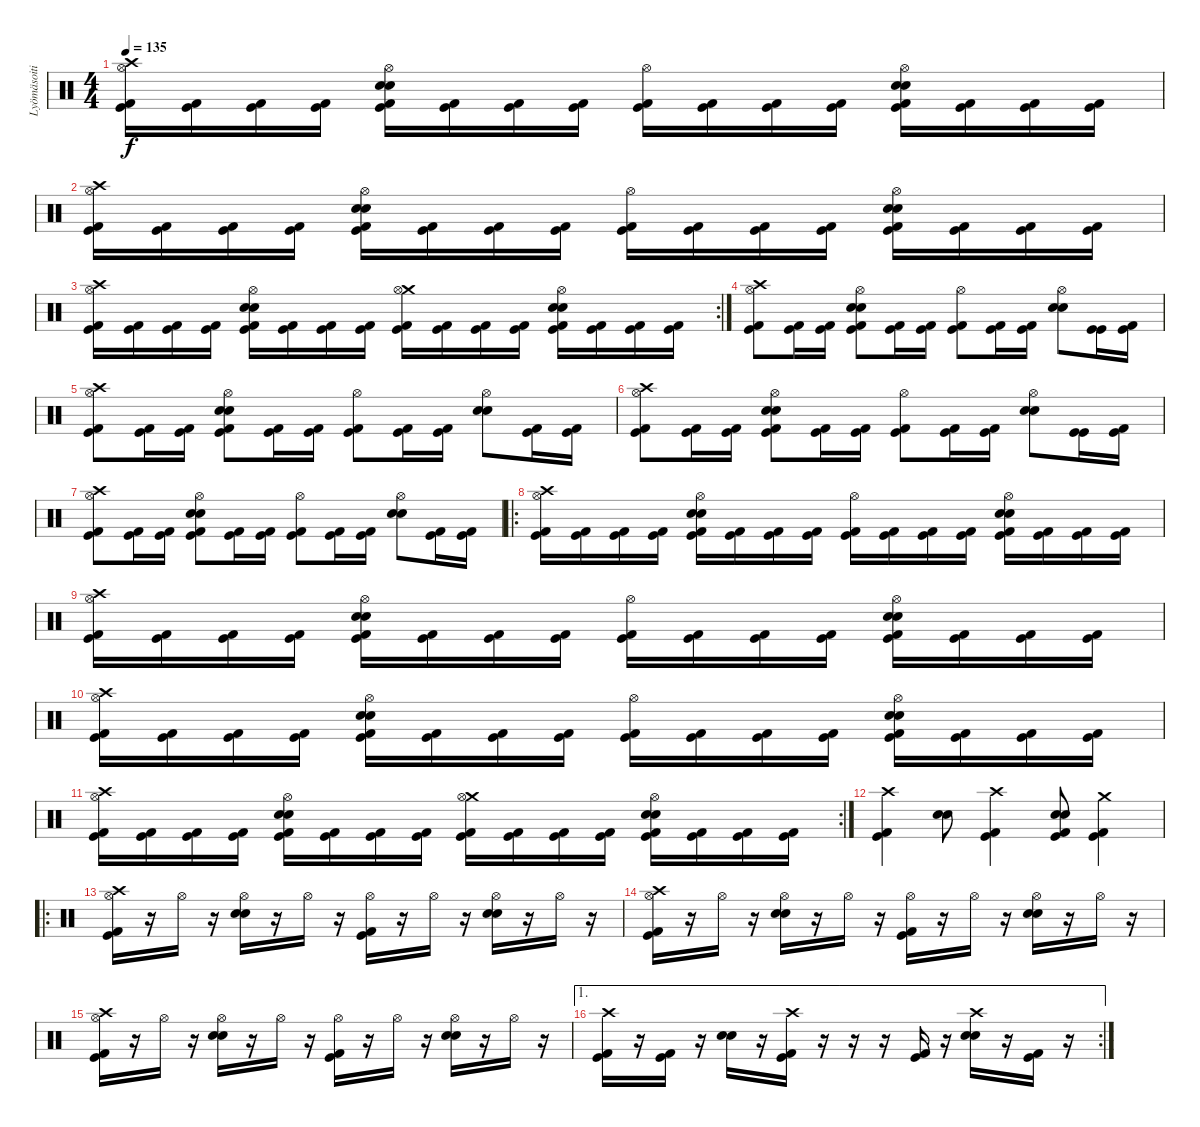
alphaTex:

\track ("Lyömäsoitin" "Lyömäsoiti") {instrument percussion}
\staff {score}
\articulation defaults
\ts (4 4)
\tempo 135
\clef neutral
\ks c
("Crash high (hit)" "Hi-Hat (open)" "Kick (hit) 2" "Kick (hit)").16{dy f} ("Kick (hit) 2" "Kick (hit)").16 ("Kick (hit) 2" "Kick (hit)").16 ("Kick (hit) 2" "Kick (hit)").16 ("Hi-Hat (open)" "Electric Snare (hit)" "Snare (hit) 2" "Kick (hit) 2" "Kick (hit)").16 ("Kick (hit) 2" "Kick (hit)").16 ("Kick (hit) 2" "Kick (hit)").16 ("Kick (hit) 2" "Kick (hit)").16 ("Hi-Hat (open)" "Kick (hit) 2" "Kick (hit)").16 ("Kick (hit) 2" "Kick (hit)").16 ("Kick (hit) 2" "Kick (hit)").16 ("Kick (hit) 2" "Kick (hit)").16 ("Hi-Hat (open)" "Electric Snare (hit)" "Snare (hit) 2" "Kick (hit) 2" "Kick (hit)").16 ("Kick (hit) 2" "Kick (hit)").16 ("Kick (hit) 2" "Kick (hit)").16 ("Kick (hit) 2" "Kick (hit)").16 |
("Crash high (hit)" "Hi-Hat (open)" "Kick (hit) 2" "Kick (hit)").16 ("Kick (hit) 2" "Kick (hit)").16 ("Kick (hit) 2" "Kick (hit)").16 ("Kick (hit) 2" "Kick (hit)").16 ("Hi-Hat (open)" "Electric Snare (hit)" "Snare (hit) 2" "Kick (hit) 2" "Kick (hit)").16 ("Kick (hit) 2" "Kick (hit)").16 ("Kick (hit) 2" "Kick (hit)").16 ("Kick (hit) 2" "Kick (hit)").16 ("Hi-Hat (open)" "Kick (hit) 2" "Kick (hit)").16 ("Kick (hit) 2" "Kick (hit)").16 ("Kick (hit) 2" "Kick (hit)").16 ("Kick (hit) 2" "Kick (hit)").16 ("Hi-Hat (open)" "Electric Snare (hit)" "Snare (hit) 2" "Kick (hit) 2" "Kick (hit)").16 ("Kick (hit) 2" "Kick (hit)").16 ("Kick (hit) 2" "Kick (hit)").16 ("Kick (hit) 2" "Kick (hit)").16 |
\rc 2
("Crash high (hit)" "Hi-Hat (open)" "Kick (hit) 2" "Kick (hit)").16 ("Kick (hit) 2" "Kick (hit)").16 ("Kick (hit) 2" "Kick (hit)").16 ("Kick (hit) 2" "Kick (hit)").16 ("Hi-Hat (open)" "Electric Snare (hit)" "Snare (hit) 2" "Kick (hit) 2" "Kick (hit)").16 ("Kick (hit) 2" "Kick (hit)").16 ("Kick (hit) 2" "Kick (hit)").16 ("Kick (hit) 2" "Kick (hit)").16 ("Crash medium (hit)" "Hi-Hat (open)" "Kick (hit) 2" "Kick (hit)").16 ("Kick (hit) 2" "Kick (hit)").16 ("Kick (hit) 2" "Kick (hit)").16 ("Kick (hit) 2" "Kick (hit)").16 ("Hi-Hat (open)" "Electric Snare (hit)" "Snare (hit) 2" "Kick (hit) 2" "Kick (hit)").16 ("Kick (hit) 2" "Kick (hit)").16 ("Kick (hit) 2" "Kick (hit)").16 ("Kick (hit) 2" "Kick (hit)").16 |
("Crash high (hit)" "Hi-Hat (open)" "Kick (hit) 2" "Kick (hit)").8 ("Kick (hit) 2" "Kick (hit)").16 ("Kick (hit) 2" "Kick (hit)").16 ("Hi-Hat (open)" "Snare (hit) 2" "Electric Snare (hit)" "Kick (hit) 2" "Kick (hit)").8 ("Kick (hit) 2" "Kick (hit)").16 ("Kick (hit) 2" "Kick (hit)").16 ("Hi-Hat (open)" "Kick (hit) 2" "Kick (hit)").8 ("Kick (hit) 2" "Kick (hit)").16 ("Kick (hit) 2" "Kick (hit)").16 ("Hi-Hat (open)" "Snare (hit) 2" "Electric Snare (hit)").8 ("Kick (hit)" "Kick (hit)").16 ("Kick (hit) 2" "Kick (hit)").16 |
("Crash high (hit)" "Hi-Hat (open)" "Kick (hit) 2" "Kick (hit)").8 ("Kick (hit) 2" "Kick (hit)").16 ("Kick (hit) 2" "Kick (hit)").16 ("Hi-Hat (open)" "Snare (hit) 2" "Electric Snare (hit)" "Kick (hit) 2" "Kick (hit)").8 ("Kick (hit) 2" "Kick (hit)").16 ("Kick (hit) 2" "Kick (hit)").16 ("Hi-Hat (open)" "Kick (hit) 2" "Kick (hit)").8 ("Kick (hit) 2" "Kick (hit)").16 ("Kick (hit) 2" "Kick (hit)").16 ("Hi-Hat (open)" "Snare (hit) 2" "Electric Snare (hit)").8 ("Kick (hit)" "Kick (hit) 2").16 ("Kick (hit)" "Kick (hit) 2").16 |
("Crash high (hit)" "Hi-Hat (open)" "Kick (hit) 2" "Kick (hit)").8 ("Kick (hit) 2" "Kick (hit)").16 ("Kick (hit) 2" "Kick (hit)").16 ("Hi-Hat (open)" "Snare (hit) 2" "Electric Snare (hit)" "Kick (hit) 2" "Kick (hit)").8 ("Kick (hit) 2" "Kick (hit)").16 ("Kick (hit) 2" "Kick (hit)").16 ("Hi-Hat (open)" "Kick (hit) 2" "Kick (hit)").8 ("Kick (hit) 2" "Kick (hit)").16 ("Kick (hit) 2" "Kick (hit)").16 ("Hi-Hat (open)" "Snare (hit) 2" "Electric Snare (hit)").8 ("Kick (hit)" "Kick (hit)").16 ("Kick (hit) 2" "Kick (hit)").16 |
("Crash high (hit)" "Hi-Hat (open)" "Kick (hit) 2" "Kick (hit)").8 ("Kick (hit) 2" "Kick (hit)").16 ("Kick (hit) 2" "Kick (hit)").16 ("Hi-Hat (open)" "Snare (hit) 2" "Electric Snare (hit)" "Kick (hit) 2" "Kick (hit)").8 ("Kick (hit) 2" "Kick (hit)").16 ("Kick (hit) 2" "Kick (hit)").16 ("Hi-Hat (open)" "Kick (hit) 2" "Kick (hit)").8 ("Kick (hit) 2" "Kick (hit)").16 ("Kick (hit) 2" "Kick (hit)").16 ("Hi-Hat (open)" "Snare (hit) 2" "Electric Snare (hit)").8 ("Kick (hit)" "Kick (hit) 2").16 ("Kick (hit)" "Kick (hit) 2").16 |
\ro
("Crash high (hit)" "Hi-Hat (open)" "Kick (hit) 2" "Kick (hit)").16 ("Kick (hit) 2" "Kick (hit)").16 ("Kick (hit) 2" "Kick (hit)").16 ("Kick (hit) 2" "Kick (hit)").16 ("Hi-Hat (open)" "Electric Snare (hit)" "Snare (hit) 2" "Kick (hit) 2" "Kick (hit)").16 ("Kick (hit) 2" "Kick (hit)").16 ("Kick (hit) 2" "Kick (hit)").16 ("Kick (hit) 2" "Kick (hit)").16 ("Hi-Hat (open)" "Kick (hit) 2" "Kick (hit)").16 ("Kick (hit) 2" "Kick (hit)").16 ("Kick (hit) 2" "Kick (hit)").16 ("Kick (hit) 2" "Kick (hit)").16 ("Hi-Hat (open)" "Electric Snare (hit)" "Snare (hit) 2" "Kick (hit) 2" "Kick (hit)").16 ("Kick (hit) 2" "Kick (hit)").16 ("Kick (hit) 2" "Kick (hit)").16 ("Kick (hit) 2" "Kick (hit)").16 |
("Crash high (hit)" "Hi-Hat (open)" "Kick (hit) 2" "Kick (hit)").16 ("Kick (hit) 2" "Kick (hit)").16 ("Kick (hit) 2" "Kick (hit)").16 ("Kick (hit) 2" "Kick (hit)").16 ("Hi-Hat (open)" "Electric Snare (hit)" "Snare (hit) 2" "Kick (hit) 2" "Kick (hit)").16 ("Kick (hit) 2" "Kick (hit)").16 ("Kick (hit) 2" "Kick (hit)").16 ("Kick (hit) 2" "Kick (hit)").16 ("Hi-Hat (open)" "Kick (hit) 2" "Kick (hit)").16 ("Kick (hit) 2" "Kick (hit)").16 ("Kick (hit) 2" "Kick (hit)").16 ("Kick (hit) 2" "Kick (hit)").16 ("Hi-Hat (open)" "Electric Snare (hit)" "Snare (hit) 2" "Kick (hit) 2" "Kick (hit)").16 ("Kick (hit) 2" "Kick (hit)").16 ("Kick (hit) 2" "Kick (hit)").16 ("Kick (hit) 2" "Kick (hit)").16 |
("Crash high (hit)" "Hi-Hat (open)" "Kick (hit) 2" "Kick (hit)").16 ("Kick (hit) 2" "Kick (hit)").16 ("Kick (hit) 2" "Kick (hit)").16 ("Kick (hit) 2" "Kick (hit)").16 ("Hi-Hat (open)" "Electric Snare (hit)" "Snare (hit) 2" "Kick (hit) 2" "Kick (hit)").16 ("Kick (hit) 2" "Kick (hit)").16 ("Kick (hit) 2" "Kick (hit)").16 ("Kick (hit) 2" "Kick (hit)").16 ("Hi-Hat (open)" "Kick (hit) 2" "Kick (hit)").16 ("Kick (hit) 2" "Kick (hit)").16 ("Kick (hit) 2" "Kick (hit)").16 ("Kick (hit) 2" "Kick (hit)").16 ("Hi-Hat (open)" "Electric Snare (hit)" "Snare (hit) 2" "Kick (hit) 2" "Kick (hit)").16 ("Kick (hit) 2" "Kick (hit)").16 ("Kick (hit) 2" "Kick (hit)").16 ("Kick (hit) 2" "Kick (hit)").16 |
\rc 2
("Crash high (hit)" "Hi-Hat (open)" "Kick (hit) 2" "Kick (hit)").16 ("Kick (hit) 2" "Kick (hit)").16 ("Kick (hit) 2" "Kick (hit)").16 ("Kick (hit) 2" "Kick (hit)").16 ("Hi-Hat (open)" "Electric Snare (hit)" "Snare (hit) 2" "Kick (hit) 2" "Kick (hit)").16 ("Kick (hit) 2" "Kick (hit)").16 ("Kick (hit) 2" "Kick (hit)").16 ("Kick (hit) 2" "Kick (hit)").16 ("Crash medium (hit)" "Hi-Hat (open)" "Kick (hit) 2" "Kick (hit)").16 ("Kick (hit) 2" "Kick (hit)").16 ("Kick (hit) 2" "Kick (hit)").16 ("Kick (hit) 2" "Kick (hit)").16 ("Hi-Hat (open)" "Electric Snare (hit)" "Snare (hit) 2" "Kick (hit) 2" "Kick (hit)").16 ("Kick (hit) 2" "Kick (hit)").16 ("Kick (hit) 2" "Kick (hit)").16 ("Kick (hit) 2" "Kick (hit)").16 |
("Crash high (hit)" "Kick (hit) 2" "Kick (hit)").4 ("Electric Snare (hit)" "Snare (hit) 2").8 ("Crash high (hit)" "Kick (hit)" "Kick (hit) 2").4 ("Electric Snare (hit)" "Snare (hit) 2" "Kick (hit) 2" "Kick (hit)").8 ("Crash medium (hit)" "Kick (hit) 2" "Kick (hit)").4 |
\ro
("Crash high (hit)" "Hi-Hat (open)" "Kick (hit) 2" "Kick (hit)").16 r.16 "Hi-Hat (open)".16 r.16 ("Hi-Hat (open)" "Electric Snare (hit)" "Snare (hit) 2").16 r.16 "Hi-Hat (open)".16 r.16 ("Hi-Hat (open)" "Kick (hit) 2" "Kick (hit)").16 r.16 "Hi-Hat (open)".16 r.16 ("Hi-Hat (open)" "Electric Snare (hit)" "Snare (hit) 2").16 r.16 "Hi-Hat (open)".16 r.16 |
("Crash high (hit)" "Hi-Hat (open)" "Kick (hit) 2" "Kick (hit)").16 r.16 "Hi-Hat (open)".16 r.16 ("Hi-Hat (open)" "Electric Snare (hit)" "Snare (hit) 2").16 r.16 "Hi-Hat (open)".16 r.16 ("Hi-Hat (open)" "Kick (hit) 2" "Kick (hit)").16 r.16 "Hi-Hat (open)".16 r.16 ("Hi-Hat (open)" "Electric Snare (hit)" "Snare (hit) 2").16 r.16 "Hi-Hat (open)".16 r.16 |
("Crash high (hit)" "Hi-Hat (open)" "Kick (hit) 2" "Kick (hit)").16 r.16 "Hi-Hat (open)".16 r.16 ("Hi-Hat (open)" "Electric Snare (hit)" "Snare (hit) 2").16 r.16 "Hi-Hat (open)".16 r.16 ("Hi-Hat (open)" "Kick (hit) 2" "Kick (hit)").16 r.16 "Hi-Hat (open)".16 r.16 ("Hi-Hat (open)" "Electric Snare (hit)" "Snare (hit) 2").16 r.16 "Hi-Hat (open)".16 r.16 |
\ae 1
\rc 2
("Crash high (hit)" "Kick (hit) 2" "Kick (hit)").16 r.16 ("Kick (hit) 2" "Kick (hit)").16 r.16 ("Electric Snare (hit)" "Snare (hit) 2").16 r.16 ("Crash high (hit)" "Kick (hit) 2" "Kick (hit)").16 r.16 r.16 r.16 ("Kick (hit) 2" "Kick (hit)").16 r.16 ("Crash high (hit)" "Electric Snare (hit)" "Snare (hit) 2").16 r.16 ("Kick (hit) 2" "Kick (hit)").16 r.16
